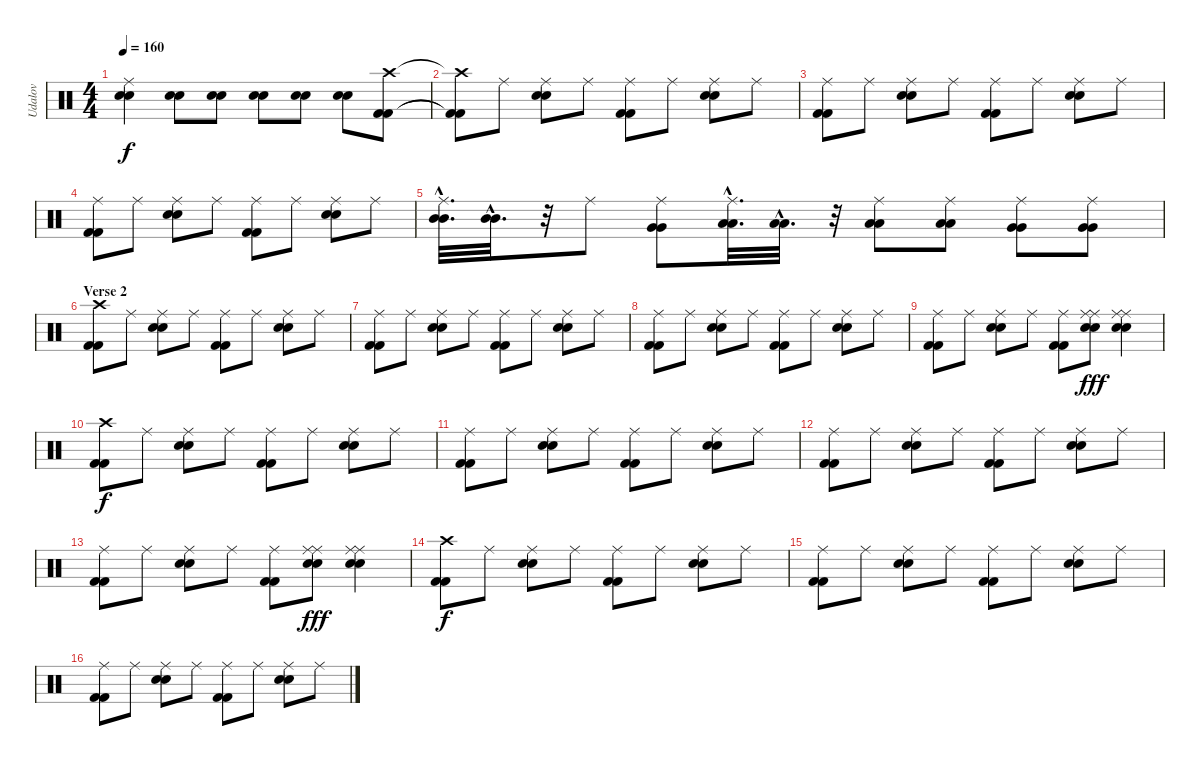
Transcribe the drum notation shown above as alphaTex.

\track ("Udalov" "Udalov") {instrument percussion}
\staff {score}
\articulation defaults
\ts (4 4)
\tempo 160
\clef neutral
\ks c
("Ride (middle)" "Electric Snare (hit)" "Electric Snare (hit)").4{dy f} ("Electric Snare (hit)" "Electric Snare (hit)").8 ("Electric Snare (hit)" "Electric Snare (hit)").8 ("Electric Snare (hit)" "Electric Snare (hit)").8 ("Electric Snare (hit)" "Electric Snare (hit)").8 ("Electric Snare (hit)" "Electric Snare (hit)").8 ("Crash high (hit)" "Kick (hit) 2" "Kick (hit) 2").8 |
("Crash high (hit)"{t} "Kick (hit) 2"{t} "Kick (hit) 2"{t}).8 "Ride (middle)".8 ("Ride (middle)" "Electric Snare (hit)" "Electric Snare (hit)").8 "Ride (middle)".8 ("Ride (middle)" "Kick (hit) 2" "Kick (hit) 2").8 "Ride (middle)".8 ("Ride (middle)" "Electric Snare (hit)" "Electric Snare (hit)").8 "Ride (middle)".8 |
("Ride (middle)" "Kick (hit) 2" "Kick (hit) 2").8 "Ride (middle)".8 ("Ride (middle)" "Electric Snare (hit)" "Electric Snare (hit)").8 "Ride (middle)".8 ("Ride (middle)" "Kick (hit) 2" "Kick (hit) 2").8 "Ride (middle)".8 ("Ride (middle)" "Electric Snare (hit)" "Electric Snare (hit)").8 "Ride (middle)".8 |
("Ride (middle)" "Kick (hit) 2" "Kick (hit) 2").8 "Ride (middle)".8 ("Ride (middle)" "Electric Snare (hit)" "Electric Snare (hit)").8 "Ride (middle)".8 ("Ride (middle)" "Kick (hit) 2" "Kick (hit) 2").8 "Ride (middle)".8 ("Ride (middle)" "Electric Snare (hit)" "Electric Snare (hit)").8 "Ride (middle)".8 |
("Ride (middle)"{hac} "Mid Tom (hit)"{hac} "Mid Tom (hit)"{hac}).32{d} ("Mid Tom (hit)"{hac} "Mid Tom (hit)"{hac}).32{d} r.32 "Ride (middle)".8 ("Ride (middle)" "Very Low Tom (hit)" "Very Low Tom (hit)").8 ("Ride (middle)"{hac} "Low Tom (hit)"{hac} "Low Tom (hit)"{hac}).32{d} ("Low Tom (hit)"{hac} "Low Tom (hit)"{hac}).32{d} r.32 ("Ride (middle)" "Low Tom (hit)" "Low Tom (hit)").8 ("Ride (middle)" "Low Tom (hit)" "Low Tom (hit)").8 ("Ride (middle)" "Very Low Tom (hit)" "Very Low Tom (hit)").8 ("Ride (middle)" "Very Low Tom (hit)" "Very Low Tom (hit)").8 |
\section ("" "Verse 2")
("Crash high (hit)" "Kick (hit) 2" "Kick (hit) 2").8 "Ride (middle)".8 ("Ride (middle)" "Electric Snare (hit)" "Electric Snare (hit)").8 "Ride (middle)".8 ("Ride (middle)" "Kick (hit) 2" "Kick (hit) 2").8 "Ride (middle)".8 ("Ride (middle)" "Electric Snare (hit)" "Electric Snare (hit)").8 "Ride (middle)".8 |
("Ride (middle)" "Kick (hit) 2" "Kick (hit) 2").8 "Ride (middle)".8 ("Ride (middle)" "Electric Snare (hit)" "Electric Snare (hit)").8 "Ride (middle)".8 ("Ride (middle)" "Kick (hit) 2" "Kick (hit) 2").8 "Ride (middle)".8 ("Ride (middle)" "Electric Snare (hit)" "Electric Snare (hit)").8 "Ride (middle)".8 |
("Ride (middle)" "Kick (hit) 2" "Kick (hit) 2").8 "Ride (middle)".8 ("Ride (middle)" "Electric Snare (hit)" "Electric Snare (hit)").8 "Ride (middle)".8 ("Ride (middle)" "Kick (hit) 2" "Kick (hit) 2").8 "Ride (middle)".8 ("Ride (middle)" "Electric Snare (hit)" "Electric Snare (hit)").8 "Ride (middle)".8 |
("Ride (middle)" "Kick (hit) 2" "Kick (hit) 2").8 "Ride (middle)".8 ("Ride (middle)" "Electric Snare (hit)" "Electric Snare (hit)").8 "Ride (middle)".8 ("Ride (middle)" "Kick (hit) 2" "Kick (hit) 2").8 ("Ride (middle)" "Ride (middle)" "Electric Snare (hit)" "Electric Snare (hit)").8{dy fff} ("Ride (middle)" "Ride (middle)" "Electric Snare (hit)" "Electric Snare (hit)").4 |
("Crash high (hit)" "Kick (hit) 2" "Kick (hit) 2").8{dy f} "Ride (middle)".8 ("Ride (middle)" "Electric Snare (hit)" "Electric Snare (hit)").8 "Ride (middle)".8 ("Ride (middle)" "Kick (hit) 2" "Kick (hit) 2").8 "Ride (middle)".8 ("Ride (middle)" "Electric Snare (hit)" "Electric Snare (hit)").8 "Ride (middle)".8 |
("Ride (middle)" "Kick (hit) 2" "Kick (hit) 2").8 "Ride (middle)".8 ("Ride (middle)" "Electric Snare (hit)" "Electric Snare (hit)").8 "Ride (middle)".8 ("Ride (middle)" "Kick (hit) 2" "Kick (hit) 2").8 "Ride (middle)".8 ("Ride (middle)" "Electric Snare (hit)" "Electric Snare (hit)").8 "Ride (middle)".8 |
("Ride (middle)" "Kick (hit) 2" "Kick (hit) 2").8 "Ride (middle)".8 ("Ride (middle)" "Electric Snare (hit)" "Electric Snare (hit)").8 "Ride (middle)".8 ("Ride (middle)" "Kick (hit) 2" "Kick (hit) 2").8 "Ride (middle)".8 ("Ride (middle)" "Electric Snare (hit)" "Electric Snare (hit)").8 "Ride (middle)".8 |
("Ride (middle)" "Kick (hit) 2" "Kick (hit) 2").8 "Ride (middle)".8 ("Ride (middle)" "Electric Snare (hit)" "Electric Snare (hit)").8 "Ride (middle)".8 ("Ride (middle)" "Kick (hit) 2" "Kick (hit) 2").8 ("Ride (middle)" "Ride (middle)" "Electric Snare (hit)" "Electric Snare (hit)").8{dy fff} ("Ride (middle)" "Ride (middle)" "Electric Snare (hit)" "Electric Snare (hit)").4 |
("Crash high (hit)" "Kick (hit) 2" "Kick (hit) 2").8{dy f} "Ride (middle)".8 ("Ride (middle)" "Electric Snare (hit)" "Electric Snare (hit)").8 "Ride (middle)".8 ("Ride (middle)" "Kick (hit) 2" "Kick (hit) 2").8 "Ride (middle)".8 ("Ride (middle)" "Electric Snare (hit)" "Electric Snare (hit)").8 "Ride (middle)".8 |
("Ride (middle)" "Kick (hit) 2" "Kick (hit) 2").8 "Ride (middle)".8 ("Ride (middle)" "Electric Snare (hit)" "Electric Snare (hit)").8 "Ride (middle)".8 ("Ride (middle)" "Kick (hit) 2" "Kick (hit) 2").8 "Ride (middle)".8 ("Ride (middle)" "Electric Snare (hit)" "Electric Snare (hit)").8 "Ride (middle)".8 |
("Ride (middle)" "Kick (hit) 2" "Kick (hit) 2").8 "Ride (middle)".8 ("Ride (middle)" "Electric Snare (hit)" "Electric Snare (hit)").8 "Ride (middle)".8 ("Ride (middle)" "Kick (hit) 2" "Kick (hit) 2").8 "Ride (middle)".8 ("Ride (middle)" "Electric Snare (hit)" "Electric Snare (hit)").8 "Ride (middle)".8
